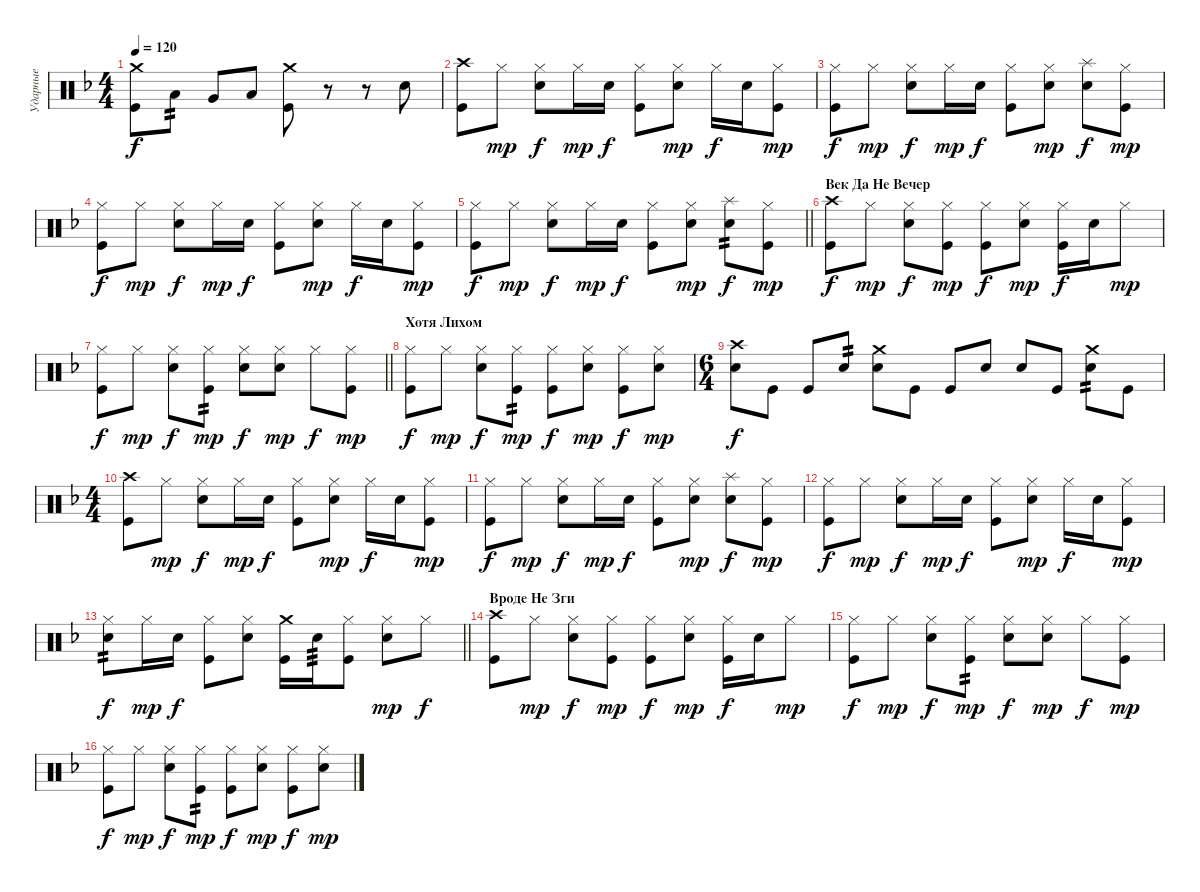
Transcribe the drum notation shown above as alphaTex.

\track ("Ударные" "Ударные") {instrument percussion}
\staff {score}
\articulation defaults
\ts (4 4)
\tempo 120
\clef neutral
\ks dminor
("Crash medium (hit)" "Kick (hit)").8{dy f} "Low Tom (hit)".8{tp 2} "Very Low Tom (hit)".8 "Low Floor Tom (hit)".8 ("Crash medium (hit)" "Kick (hit)").8 r.8 r.8 "Snare (hit) 2".8 |
("Crash high (hit)" "Kick (hit)").8 "Hi-Hat (closed)".8{dy mp} ("Hi-Hat (closed)" "Snare (hit) 2").8{dy f} "Hi-Hat (closed)".16{dy mp} "Snare (hit) 2".16{dy f} ("Hi-Hat (closed)" "Kick (hit)").8 ("Hi-Hat (closed)" "Snare (hit) 2").8{dy mp} "Hi-Hat (closed)".16{dy f} "Snare (hit) 2".16 ("Hi-Hat (closed)" "Kick (hit)").8{dy mp} |
("Hi-Hat (closed)" "Kick (hit)").8{dy f} "Hi-Hat (closed)".8{dy mp} ("Hi-Hat (closed)" "Snare (hit) 2").8{dy f} "Hi-Hat (closed)".16{dy mp} "Snare (hit) 2".16{dy f} ("Hi-Hat (closed)" "Kick (hit)").8 ("Hi-Hat (closed)" "Snare (hit) 2").8{dy mp} ("Splash (hit)" "Snare (hit) 2").8{dy f} ("Hi-Hat (closed)" "Kick (hit)").8{dy mp} |
("Hi-Hat (closed)" "Kick (hit)").8{dy f} "Hi-Hat (closed)".8{dy mp} ("Hi-Hat (closed)" "Snare (hit) 2").8{dy f} "Hi-Hat (closed)".16{dy mp} "Snare (hit) 2".16{dy f} ("Hi-Hat (closed)" "Kick (hit)").8 ("Hi-Hat (closed)" "Snare (hit) 2").8{dy mp} "Hi-Hat (closed)".16{dy f} "Snare (hit) 2".16 ("Hi-Hat (closed)" "Kick (hit)").8{dy mp} |
\barLineRight lightlight
("Hi-Hat (closed)" "Kick (hit)").8{dy f} "Hi-Hat (closed)".8{dy mp} ("Hi-Hat (closed)" "Snare (hit) 2").8{dy f} "Hi-Hat (closed)".16{dy mp} "Snare (hit) 2".16{dy f} ("Hi-Hat (closed)" "Kick (hit)").8 ("Hi-Hat (closed)" "Snare (hit) 2").8{dy mp} ("Splash (hit)" "Snare (hit) 2").8{tp 2 dy f} ("Hi-Hat (closed)" "Kick (hit)").8{dy mp} |
\section ("" "Век Да Не Вечер")
("Crash high (hit)" "Kick (hit)").8{dy f} "Hi-Hat (closed)".8{dy mp} ("Hi-Hat (closed)" "Snare (hit) 2").8{dy f} ("Hi-Hat (closed)" "Kick (hit)").8{dy mp} ("Hi-Hat (closed)" "Kick (hit)").8{dy f} ("Hi-Hat (closed)" "Snare (hit) 2").8{dy mp} ("Hi-Hat (closed)" "Kick (hit)").16{dy f} "Snare (hit) 2".16 "Hi-Hat (closed)".8{dy mp} |
\barLineRight lightlight
("Hi-Hat (closed)" "Kick (hit)").8{dy f} "Hi-Hat (closed)".8{dy mp} ("Hi-Hat (closed)" "Snare (hit) 2").8{dy f} ("Hi-Hat (closed)" "Kick (hit)").8{tp 2 dy mp} ("Hi-Hat (closed)" "Snare (hit) 2").8{dy f} ("Hi-Hat (closed)" "Snare (hit) 2").8{dy mp} "Hi-Hat (closed)".8{dy f} ("Hi-Hat (closed)" "Kick (hit)").8{dy mp} |
\section ("" "Хотя Лихом")
("Hi-Hat (closed)" "Kick (hit)").8{dy f} "Hi-Hat (closed)".8{dy mp} ("Hi-Hat (closed)" "Snare (hit) 2").8{dy f} ("Hi-Hat (closed)" "Kick (hit)").8{tp 2 dy mp} ("Hi-Hat (closed)" "Kick (hit)").8{dy f} ("Hi-Hat (closed)" "Snare (hit) 2").8{dy mp} ("Hi-Hat (closed)" "Kick (hit)").8{dy f} ("Hi-Hat (closed)" "Snare (hit) 2").8{dy mp} |
\ts (6 4)
("Crash high (hit)" "Snare (hit) 2").8{dy f} "Kick (hit)".8 "Kick (hit)".8 "Snare (hit) 2".8{tp 2} ("Crash medium (hit)" "Snare (hit) 2").8 "Kick (hit)".8 "Kick (hit)".8 "Snare (hit) 2".8 "Snare (hit) 2".8 "Kick (hit)".8 ("Crash medium (hit)" "Snare (hit) 2").8{tp 2} "Kick (hit)".8 |
\ts (4 4)
("Crash high (hit)" "Kick (hit)").8 "Hi-Hat (closed)".8{dy mp} ("Hi-Hat (closed)" "Snare (hit) 2").8{dy f} "Hi-Hat (closed)".16{dy mp} "Snare (hit) 2".16{dy f} ("Hi-Hat (closed)" "Kick (hit)").8 ("Hi-Hat (closed)" "Snare (hit) 2").8{dy mp} "Hi-Hat (closed)".16{dy f} "Snare (hit) 2".16 ("Hi-Hat (closed)" "Kick (hit)").8{dy mp} |
("Hi-Hat (closed)" "Kick (hit)").8{dy f} "Hi-Hat (closed)".8{dy mp} ("Hi-Hat (closed)" "Snare (hit) 2").8{dy f} "Hi-Hat (closed)".16{dy mp} "Snare (hit) 2".16{dy f} ("Hi-Hat (closed)" "Kick (hit)").8 ("Hi-Hat (closed)" "Snare (hit) 2").8{dy mp} ("Splash (hit)" "Snare (hit) 2").8{dy f} ("Hi-Hat (closed)" "Kick (hit)").8{dy mp} |
("Hi-Hat (closed)" "Kick (hit)").8{dy f} "Hi-Hat (closed)".8{dy mp} ("Hi-Hat (closed)" "Snare (hit) 2").8{dy f} "Hi-Hat (closed)".16{dy mp} "Snare (hit) 2".16{dy f} ("Hi-Hat (closed)" "Kick (hit)").8 ("Hi-Hat (closed)" "Snare (hit) 2").8{dy mp} "Hi-Hat (closed)".16{dy f} "Snare (hit) 2".16 ("Hi-Hat (closed)" "Kick (hit)").8{dy mp} |
\barLineRight lightlight
("Hi-Hat (closed)" "Snare (hit) 2").8{tp 2 dy f} "Hi-Hat (closed)".16{dy mp} "Snare (hit) 2".16{dy f} ("Hi-Hat (closed)" "Kick (hit)").8 ("Hi-Hat (closed)" "Snare (hit) 2").8 ("Crash medium (hit)" "Kick (hit)").16 "Snare (hit) 2".16{tp 3} ("Hi-Hat (closed)" "Kick (hit)").8 ("Hi-Hat (closed)" "Snare (hit) 2").8{dy mp} "Hi-Hat (closed)".8{dy f} |
\section ("" "Вроде Не Зги")
("Crash high (hit)" "Kick (hit)").8 "Hi-Hat (closed)".8{dy mp} ("Hi-Hat (closed)" "Snare (hit) 2").8{dy f} ("Hi-Hat (closed)" "Kick (hit)").8{dy mp} ("Hi-Hat (closed)" "Kick (hit)").8{dy f} ("Hi-Hat (closed)" "Snare (hit) 2").8{dy mp} ("Hi-Hat (closed)" "Kick (hit)").16{dy f} "Snare (hit) 2".16 "Hi-Hat (closed)".8{dy mp} |
("Hi-Hat (closed)" "Kick (hit)").8{dy f} "Hi-Hat (closed)".8{dy mp} ("Hi-Hat (closed)" "Snare (hit) 2").8{dy f} ("Hi-Hat (closed)" "Kick (hit)").8{tp 2 dy mp} ("Hi-Hat (closed)" "Snare (hit) 2").8{dy f} ("Hi-Hat (closed)" "Snare (hit) 2").8{dy mp} "Hi-Hat (closed)".8{dy f} ("Hi-Hat (closed)" "Kick (hit)").8{dy mp} |
("Hi-Hat (closed)" "Kick (hit)").8{dy f} "Hi-Hat (closed)".8{dy mp} ("Hi-Hat (closed)" "Snare (hit) 2").8{dy f} ("Hi-Hat (closed)" "Kick (hit)").8{tp 2 dy mp} ("Hi-Hat (closed)" "Kick (hit)").8{dy f} ("Hi-Hat (closed)" "Snare (hit) 2").8{dy mp} ("Hi-Hat (closed)" "Kick (hit)").8{dy f} ("Hi-Hat (closed)" "Snare (hit) 2").8{dy mp}
